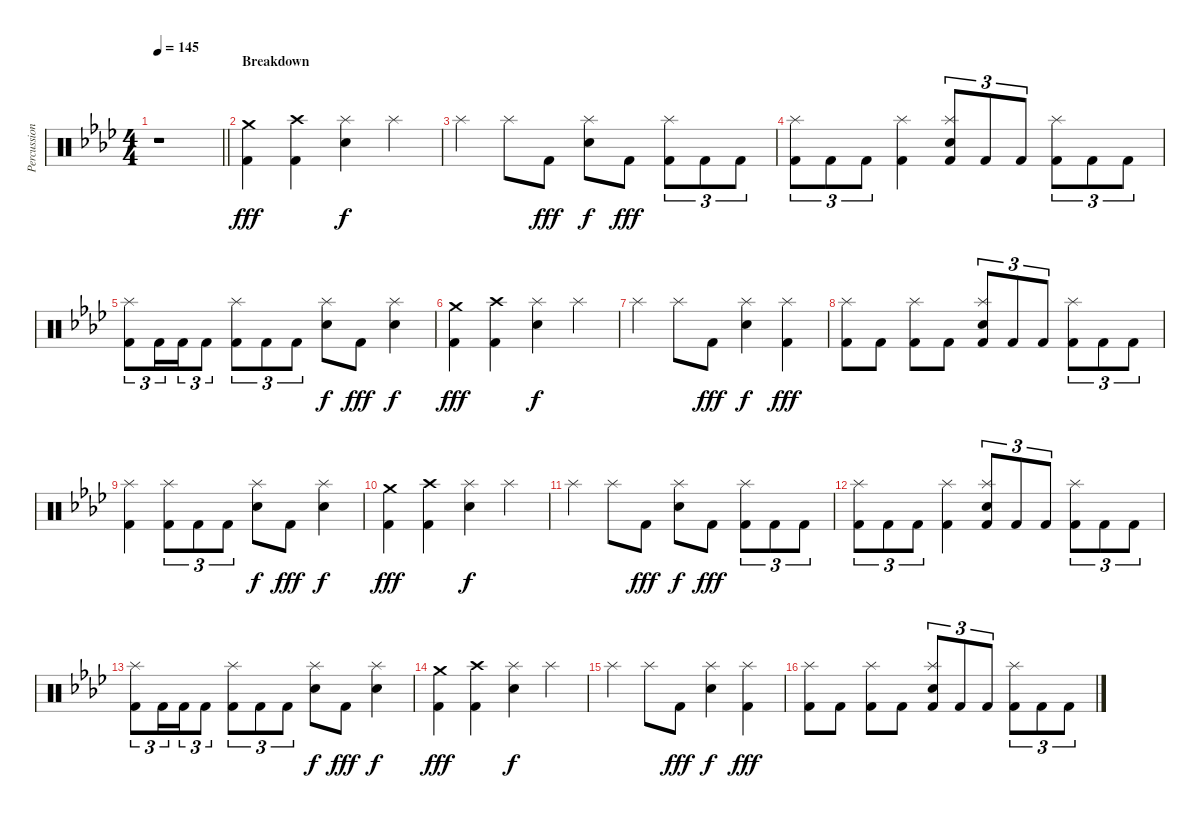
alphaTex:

\track ("Percussion" "Percussion") {instrument percussion}
\staff {score}
\articulation defaults
\ts (4 4)
\tempo 145
\clef neutral
\barLineRight lightlight
\ks ab
r.1{dy fff} |
\section ("" "Breakdown")
("Crash medium (hit)" "Kick (hit) 2").4 ("Crash high (hit)" "Kick (hit) 2").4 ("Splash (hit)" "Electric Snare (hit)").4{dy f} "Splash (hit)".4 |
"Splash (hit)".4 "Splash (hit)".8 "Kick (hit) 2".8{dy fff} ("Splash (hit)" "Electric Snare (hit)").8{dy f} "Kick (hit) 2".8{dy fff} ("Splash (hit)" "Kick (hit) 2").8{tu (3 2)} "Kick (hit) 2".8{tu (3 2)} "Kick (hit) 2".8{tu (3 2)} |
("Splash (hit)" "Kick (hit) 2").8{tu (3 2)} "Kick (hit) 2".8{tu (3 2)} "Kick (hit) 2".8{tu (3 2)} ("Splash (hit)" "Kick (hit) 2").4 ("Splash (hit)" "Electric Snare (hit)" "Kick (hit) 2").8{tu (3 2)} "Kick (hit) 2".8{tu (3 2)} "Kick (hit) 2".8{tu (3 2)} ("Splash (hit)" "Kick (hit) 2").8{tu (3 2)} "Kick (hit) 2".8{tu (3 2)} "Kick (hit) 2".8{tu (3 2)} |
("Splash (hit)" "Kick (hit) 2").8{tu (3 2)} "Kick (hit) 2".16{tu (3 2) beam merge} "Kick (hit) 2".16{tu (3 2) beam merge} "Kick (hit) 2".8{tu (3 2)} ("Splash (hit)" "Kick (hit) 2").8{tu (3 2)} "Kick (hit) 2".8{tu (3 2)} "Kick (hit) 2".8{tu (3 2)} ("Splash (hit)" "Electric Snare (hit)").8{dy f} "Kick (hit) 2".8{dy fff} ("Splash (hit)" "Electric Snare (hit)").4{dy f} |
("Crash medium (hit)" "Kick (hit) 2").4{dy fff} ("Crash high (hit)" "Kick (hit) 2").4 ("Splash (hit)" "Electric Snare (hit)").4{dy f} "Splash (hit)".4 |
"Splash (hit)".4 "Splash (hit)".8 "Kick (hit) 2".8{dy fff} ("Splash (hit)" "Electric Snare (hit)").4{dy f} ("Splash (hit)" "Kick (hit) 2").4{dy fff} |
("Splash (hit)" "Kick (hit) 2").8 "Kick (hit) 2".8 ("Splash (hit)" "Kick (hit) 2").8 "Kick (hit) 2".8 ("Splash (hit)" "Electric Snare (hit)" "Kick (hit) 2").8{tu (3 2)} "Kick (hit) 2".8{tu (3 2)} "Kick (hit) 2".8{tu (3 2)} ("Splash (hit)" "Kick (hit) 2").8{tu (3 2)} "Kick (hit) 2".8{tu (3 2)} "Kick (hit) 2".8{tu (3 2)} |
("Splash (hit)" "Kick (hit) 2").4 ("Splash (hit)" "Kick (hit) 2").8{tu (3 2)} "Kick (hit) 2".8{tu (3 2)} "Kick (hit) 2".8{tu (3 2)} ("Splash (hit)" "Electric Snare (hit)").8{dy f} "Kick (hit) 2".8{dy fff} ("Splash (hit)" "Electric Snare (hit)").4{dy f} |
("Crash medium (hit)" "Kick (hit) 2").4{dy fff} ("Crash high (hit)" "Kick (hit) 2").4 ("Splash (hit)" "Electric Snare (hit)").4{dy f} "Splash (hit)".4 |
"Splash (hit)".4 "Splash (hit)".8 "Kick (hit) 2".8{dy fff} ("Splash (hit)" "Electric Snare (hit)").8{dy f} "Kick (hit) 2".8{dy fff} ("Splash (hit)" "Kick (hit) 2").8{tu (3 2)} "Kick (hit) 2".8{tu (3 2)} "Kick (hit) 2".8{tu (3 2)} |
("Splash (hit)" "Kick (hit) 2").8{tu (3 2)} "Kick (hit) 2".8{tu (3 2)} "Kick (hit) 2".8{tu (3 2)} ("Splash (hit)" "Kick (hit) 2").4 ("Splash (hit)" "Electric Snare (hit)" "Kick (hit) 2").8{tu (3 2)} "Kick (hit) 2".8{tu (3 2)} "Kick (hit) 2".8{tu (3 2)} ("Splash (hit)" "Kick (hit) 2").8{tu (3 2)} "Kick (hit) 2".8{tu (3 2)} "Kick (hit) 2".8{tu (3 2)} |
("Splash (hit)" "Kick (hit) 2").8{tu (3 2)} "Kick (hit) 2".16{tu (3 2) beam merge} "Kick (hit) 2".16{tu (3 2) beam merge} "Kick (hit) 2".8{tu (3 2)} ("Splash (hit)" "Kick (hit) 2").8{tu (3 2)} "Kick (hit) 2".8{tu (3 2)} "Kick (hit) 2".8{tu (3 2)} ("Splash (hit)" "Electric Snare (hit)").8{dy f} "Kick (hit) 2".8{dy fff} ("Splash (hit)" "Electric Snare (hit)").4{dy f} |
("Crash medium (hit)" "Kick (hit) 2").4{dy fff} ("Crash high (hit)" "Kick (hit) 2").4 ("Splash (hit)" "Electric Snare (hit)").4{dy f} "Splash (hit)".4 |
"Splash (hit)".4 "Splash (hit)".8 "Kick (hit) 2".8{dy fff} ("Splash (hit)" "Electric Snare (hit)").4{dy f} ("Splash (hit)" "Kick (hit) 2").4{dy fff} |
("Splash (hit)" "Kick (hit) 2").8 "Kick (hit) 2".8 ("Splash (hit)" "Kick (hit) 2").8 "Kick (hit) 2".8 ("Splash (hit)" "Electric Snare (hit)" "Kick (hit) 2").8{tu (3 2)} "Kick (hit) 2".8{tu (3 2)} "Kick (hit) 2".8{tu (3 2)} ("Splash (hit)" "Kick (hit) 2").8{tu (3 2)} "Kick (hit) 2".8{tu (3 2)} "Kick (hit) 2".8{tu (3 2)}
